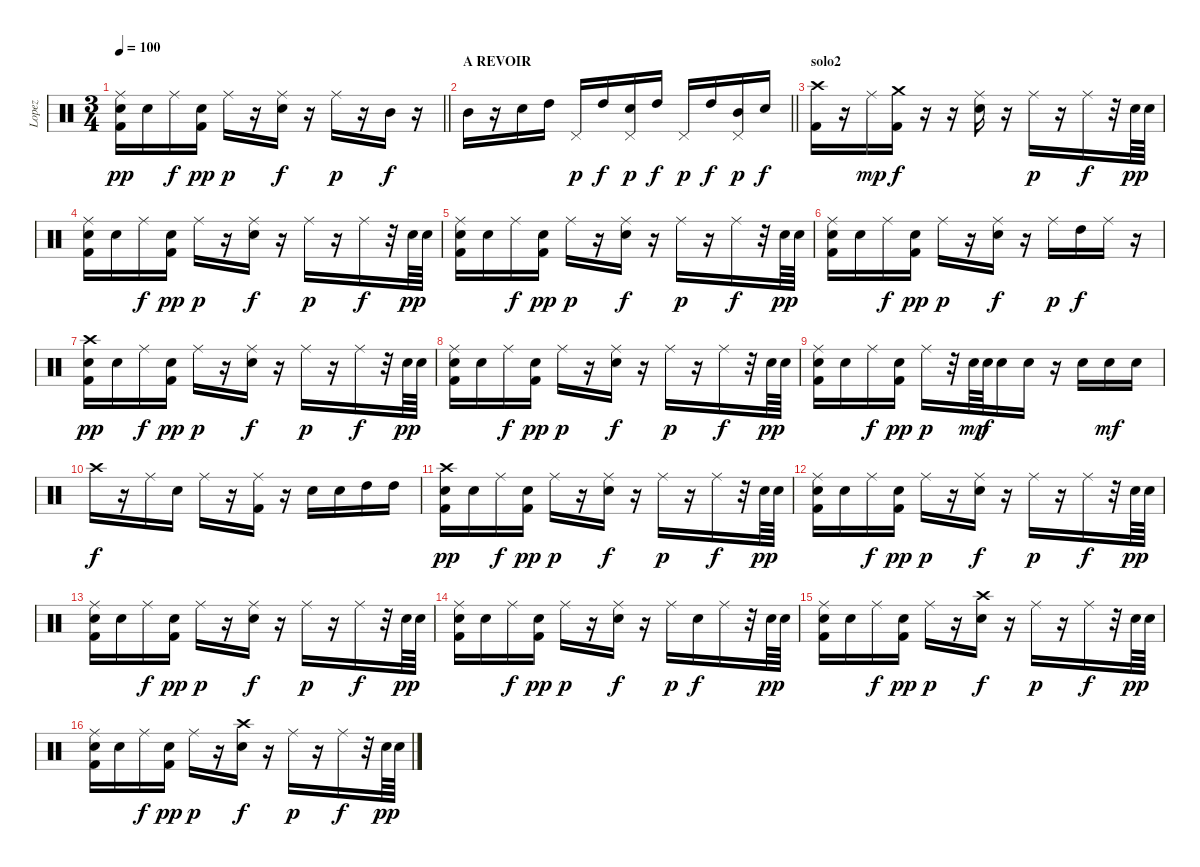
\track ("Lopez" "Lopez") {instrument percussion}
\staff {score}
\articulation defaults
\ts (3 4)
\tempo 100
\clef neutral
\barLineRight lightlight
\ks c
("Ride (middle)" "Snare (hit) 2" "Kick (hit) 2").16{dy pp} "Snare (hit) 2".16 "Ride (middle)".16{dy f} ("Snare (hit) 2" "Kick (hit) 2").16{dy pp} "Ride (middle)".16{dy p} r.16 ("Ride (middle)" "Snare (hit) 2").16{dy f} r.16 "Ride (middle)".16{dy p} r.16 "Mid Tom (hit)".16{dy f} r.16 |
\section ("" "A REVOIR")
\barLineRight lightlight "Mid Tom (hit)".16
r.16 "Snare (hit) 2".16 "High Tom (hit)".16 "Pedal Hi-Hat (hit)".16{dy p} "High Tom (hit)".16{dy f} ("Pedal Hi-Hat (hit)" "Snare (hit) 2").16{dy p} "High Tom (hit)".16{dy f} "Pedal Hi-Hat (hit)".16{dy p} "High Tom (hit)".16{dy f} ("Pedal Hi-Hat (hit)" "Mid Tom (hit)").16{dy p} "Electric Snare (hit)".16{dy f} |
\section ("" "solo2")
("Crash high (hit)" "Kick (hit) 2").16 r.16 "Ride (middle)".16{dy mp} ("Crash medium (hit)" "Kick (hit) 2").16{dy f} r.16 r.16 ("Ride (middle)" "Snare (hit) 2").16 r.16 "Ride (middle)".16{dy p} r.16 "Ride (middle)".16{dy f} r.32 "Snare (hit) 2".64{dy pp} "Snare (hit) 2".64 |
("Ride (middle)" "Snare (hit) 2" "Kick (hit) 2").16 "Snare (hit) 2".16 "Ride (middle)".16{dy f} ("Snare (hit) 2" "Kick (hit) 2").16{dy pp} "Ride (middle)".16{dy p} r.16 ("Ride (middle)" "Snare (hit) 2").16{dy f} r.16 "Ride (middle)".16{dy p} r.16 "Ride (middle)".16{dy f} r.32 "Snare (hit) 2".64{dy pp} "Snare (hit) 2".64 |
("Ride (middle)" "Snare (hit) 2" "Kick (hit) 2").16 "Snare (hit) 2".16 "Ride (middle)".16{dy f} ("Snare (hit) 2" "Kick (hit) 2").16{dy pp} "Ride (middle)".16{dy p} r.16 ("Ride (middle)" "Snare (hit) 2").16{dy f} r.16 "Ride (middle)".16{dy p} r.16 "Ride (middle)".16{dy f} r.32 "Snare (hit) 2".64{dy pp} "Snare (hit) 2".64 |
("Ride (middle)" "Snare (hit) 2" "Kick (hit) 2").16 "Snare (hit) 2".16 "Ride (middle)".16{dy f} ("Snare (hit) 2" "Kick (hit) 2").16{dy pp} "Ride (middle)".16{dy p} r.16 ("Ride (middle)" "Snare (hit) 2").16{dy f} r.16 "Ride (middle)".16{dy p} "High Tom (hit)".16{dy f} "Ride (middle)".16 r.16 |
("Crash high (hit)" "Snare (hit) 2" "Kick (hit) 2").16{dy pp} "Snare (hit) 2".16 "Ride (middle)".16{dy f} ("Snare (hit) 2" "Kick (hit) 2").16{dy pp} "Ride (middle)".16{dy p} r.16 ("Ride (middle)" "Snare (hit) 2").16{dy f} r.16 "Ride (middle)".16{dy p} r.16 "Ride (middle)".16{dy f} r.32 "Snare (hit) 2".64{dy pp} "Snare (hit) 2".64 |
("Ride (middle)" "Snare (hit) 2" "Kick (hit) 2").16 "Snare (hit) 2".16 "Ride (middle)".16{dy f} ("Snare (hit) 2" "Kick (hit) 2").16{dy pp} "Ride (middle)".16{dy p} r.16 ("Ride (middle)" "Snare (hit) 2").16{dy f} r.16 "Ride (middle)".16{dy p} r.16 "Ride (middle)".16{dy f} r.32 "Snare (hit) 2".64{dy pp} "Snare (hit) 2".64 |
("Ride (middle)" "Snare (hit) 2" "Kick (hit) 2").16 "Snare (hit) 2".16 "Ride (middle)".16{dy f} ("Snare (hit) 2" "Kick (hit) 2").16{dy pp} "Ride (middle)".16{dy p} r.32 "Snare (hit) 2".64{dy mp} "Snare (hit) 2".64{dy f} "Snare (hit) 2".16 "Snare (hit) 2".16 r.16 "Snare (hit) 2".16 "Snare (hit) 2".16{dy mf} "Snare (hit) 2".16 |
"Crash high (hit)".16{dy f} r.16 "Ride (middle)".16 "Snare (hit) 2".16 "Ride (middle)".16 r.16 ("Ride (middle)" "Kick (hit) 2").16 r.16 "Snare (hit) 2".16 "Snare (hit) 2".16 "High Tom (hit)".16 "High Tom (hit)".16 |
("Crash high (hit)" "Snare (hit) 2" "Kick (hit) 2").16{dy pp} "Snare (hit) 2".16 "Ride (middle)".16{dy f} ("Snare (hit) 2" "Kick (hit) 2").16{dy pp} "Ride (middle)".16{dy p} r.16 ("Ride (middle)" "Snare (hit) 2").16{dy f} r.16 "Ride (middle)".16{dy p} r.16 "Ride (middle)".16{dy f} r.32 "Snare (hit) 2".64{dy pp} "Snare (hit) 2".64 |
("Ride (middle)" "Snare (hit) 2" "Kick (hit) 2").16 "Snare (hit) 2".16 "Ride (middle)".16{dy f} ("Snare (hit) 2" "Kick (hit) 2").16{dy pp} "Ride (middle)".16{dy p} r.16 ("Ride (middle)" "Snare (hit) 2").16{dy f} r.16 "Ride (middle)".16{dy p} r.16 "Ride (middle)".16{dy f} r.32 "Snare (hit) 2".64{dy pp} "Snare (hit) 2".64 |
("Ride (middle)" "Snare (hit) 2" "Kick (hit) 2").16 "Snare (hit) 2".16 "Ride (middle)".16{dy f} ("Snare (hit) 2" "Kick (hit) 2").16{dy pp} "Ride (middle)".16{dy p} r.16 ("Ride (middle)" "Snare (hit) 2").16{dy f} r.16 "Ride (middle)".16{dy p} r.16 "Ride (middle)".16{dy f} r.32 "Snare (hit) 2".64{dy pp} "Snare (hit) 2".64 |
("Ride (middle)" "Snare (hit) 2" "Kick (hit) 2").16 "Snare (hit) 2".16 "Ride (middle)".16{dy f} ("Snare (hit) 2" "Kick (hit) 2").16{dy pp} "Ride (middle)".16{dy p} r.16 ("Ride (middle)" "Snare (hit) 2").16{dy f} r.16 "Ride (middle)".16{dy p} "Snare (hit) 2".16{dy f} "Ride (middle)".16 r.32 "Snare (hit) 2".64{dy pp} "Snare (hit) 2".64 |
("Ride (middle)" "Snare (hit) 2" "Kick (hit) 2").16 "Snare (hit) 2".16 "Ride (middle)".16{dy f} ("Snare (hit) 2" "Kick (hit) 2").16{dy pp} "Ride (middle)".16{dy p} r.16 ("Crash high (hit)" "Snare (hit) 2").16{dy f} r.16 "Ride (middle)".16{dy p} r.16 "Ride (middle)".16{dy f} r.32 "Snare (hit) 2".64{dy pp} "Snare (hit) 2".64 |
("Ride (middle)" "Snare (hit) 2" "Kick (hit) 2").16 "Snare (hit) 2".16 "Ride (middle)".16{dy f} ("Snare (hit) 2" "Kick (hit) 2").16{dy pp} "Ride (middle)".16{dy p} r.16 ("Crash high (hit)" "Snare (hit) 2").16{dy f} r.16 "Ride (middle)".16{dy p} r.16 "Ride (middle)".16{dy f} r.32 "Snare (hit) 2".64{dy pp} "Snare (hit) 2".64
